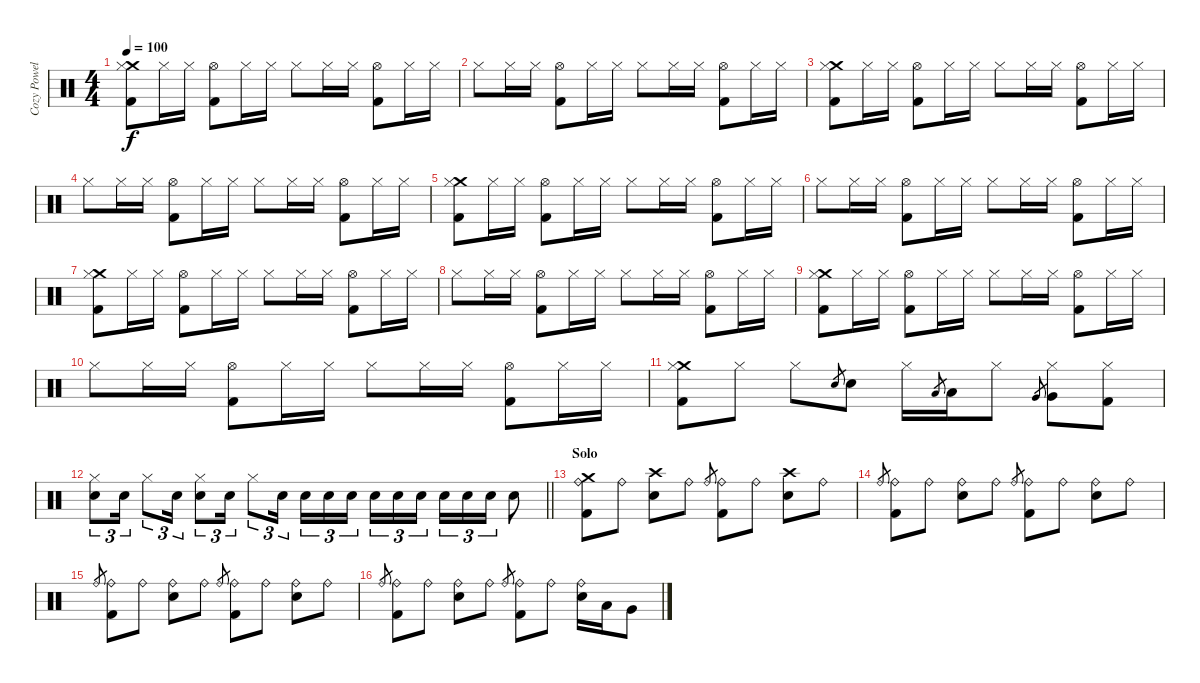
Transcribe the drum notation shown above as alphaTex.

\track ("Cozy Powell " "Cozy Powel") {instrument percussion}
\staff {score}
\articulation defaults
\ts (4 4)
\tempo 100
\clef neutral
\ks c
("Crash medium (hit)" "Hi-Hat (closed)" "Kick (hit) 2").8{dy f} "Hi-Hat (closed)".16 "Hi-Hat (closed)".16 ("Hi-Hat (open)" "Kick (hit) 2").8 "Hi-Hat (closed)".16 "Hi-Hat (closed)".16 "Hi-Hat (closed)".8 "Hi-Hat (closed)".16 "Hi-Hat (closed)".16 ("Hi-Hat (open)" "Kick (hit) 2").8 "Hi-Hat (closed)".16 "Hi-Hat (closed)".16 |
"Hi-Hat (closed)".8 "Hi-Hat (closed)".16 "Hi-Hat (closed)".16 ("Hi-Hat (open)" "Kick (hit) 2").8 "Hi-Hat (closed)".16 "Hi-Hat (closed)".16 "Hi-Hat (closed)".8 "Hi-Hat (closed)".16 "Hi-Hat (closed)".16 ("Hi-Hat (open)" "Kick (hit) 2").8 "Hi-Hat (closed)".16 "Hi-Hat (closed)".16 |
("Crash medium (hit)" "Hi-Hat (closed)" "Kick (hit) 2").8 "Hi-Hat (closed)".16 "Hi-Hat (closed)".16 ("Hi-Hat (open)" "Kick (hit) 2").8 "Hi-Hat (closed)".16 "Hi-Hat (closed)".16 "Hi-Hat (closed)".8 "Hi-Hat (closed)".16 "Hi-Hat (closed)".16 ("Hi-Hat (open)" "Kick (hit) 2").8 "Hi-Hat (closed)".16 "Hi-Hat (closed)".16 |
"Hi-Hat (closed)".8 "Hi-Hat (closed)".16 "Hi-Hat (closed)".16 ("Hi-Hat (open)" "Kick (hit) 2").8 "Hi-Hat (closed)".16 "Hi-Hat (closed)".16 "Hi-Hat (closed)".8 "Hi-Hat (closed)".16 "Hi-Hat (closed)".16 ("Hi-Hat (open)" "Kick (hit) 2").8 "Hi-Hat (closed)".16 "Hi-Hat (closed)".16 |
("Crash medium (hit)" "Hi-Hat (closed)" "Kick (hit) 2").8 "Hi-Hat (closed)".16 "Hi-Hat (closed)".16 ("Hi-Hat (open)" "Kick (hit) 2").8 "Hi-Hat (closed)".16 "Hi-Hat (closed)".16 "Hi-Hat (closed)".8 "Hi-Hat (closed)".16 "Hi-Hat (closed)".16 ("Hi-Hat (open)" "Kick (hit) 2").8 "Hi-Hat (closed)".16 "Hi-Hat (closed)".16 |
"Hi-Hat (closed)".8 "Hi-Hat (closed)".16 "Hi-Hat (closed)".16 ("Hi-Hat (open)" "Kick (hit) 2").8 "Hi-Hat (closed)".16 "Hi-Hat (closed)".16 "Hi-Hat (closed)".8 "Hi-Hat (closed)".16 "Hi-Hat (closed)".16 ("Hi-Hat (open)" "Kick (hit) 2").8 "Hi-Hat (closed)".16 "Hi-Hat (closed)".16 |
("Crash medium (hit)" "Hi-Hat (closed)" "Kick (hit) 2").8 "Hi-Hat (closed)".16 "Hi-Hat (closed)".16 ("Hi-Hat (open)" "Kick (hit) 2").8 "Hi-Hat (closed)".16 "Hi-Hat (closed)".16 "Hi-Hat (closed)".8 "Hi-Hat (closed)".16 "Hi-Hat (closed)".16 ("Hi-Hat (open)" "Kick (hit) 2").8 "Hi-Hat (closed)".16 "Hi-Hat (closed)".16 |
"Hi-Hat (closed)".8 "Hi-Hat (closed)".16 "Hi-Hat (closed)".16 ("Hi-Hat (open)" "Kick (hit) 2").8 "Hi-Hat (closed)".16 "Hi-Hat (closed)".16 "Hi-Hat (closed)".8 "Hi-Hat (closed)".16 "Hi-Hat (closed)".16 ("Hi-Hat (open)" "Kick (hit) 2").8 "Hi-Hat (closed)".16 "Hi-Hat (closed)".16 |
("Crash medium (hit)" "Hi-Hat (closed)" "Kick (hit) 2").8 "Hi-Hat (closed)".16 "Hi-Hat (closed)".16 ("Hi-Hat (open)" "Kick (hit) 2").8 "Hi-Hat (closed)".16 "Hi-Hat (closed)".16 "Hi-Hat (closed)".8 "Hi-Hat (closed)".16 "Hi-Hat (closed)".16 ("Hi-Hat (open)" "Kick (hit) 2").8 "Hi-Hat (closed)".16 "Hi-Hat (closed)".16 |
"Hi-Hat (closed)".8 "Hi-Hat (closed)".16 "Hi-Hat (closed)".16 ("Hi-Hat (open)" "Kick (hit) 2").8 "Hi-Hat (closed)".16 "Hi-Hat (closed)".16 "Hi-Hat (closed)".8 "Hi-Hat (closed)".16 "Hi-Hat (closed)".16 ("Hi-Hat (open)" "Kick (hit) 2").8 "Hi-Hat (closed)".16 "Hi-Hat (closed)".16 |
("Crash medium (hit)" "Hi-Hat (closed)" "Kick (hit) 2").8 "Hi-Hat (closed)".8 "Hi-Hat (closed)".8 "Snare (hit) 2".8{gr} "Snare (hit) 2".8 "Hi-Hat (closed)".16 "Low Tom (hit)".8{gr} "Low Tom (hit)".16 "Hi-Hat (closed)".8 "Very Low Tom (hit)".8{gr} ("Hi-Hat (closed)" "Very Low Tom (hit)").8 ("Hi-Hat (closed)" "Kick (hit) 2").8 |
\barLineRight lightlight
("Hi-Hat (closed)" "Snare (hit) 2").8{tu (3 2)} "Snare (hit) 2".16{tu (3 2)} "Hi-Hat (closed)".8{tu (3 2)} "Snare (hit) 2".16{tu (3 2)} ("Hi-Hat (closed)" "Snare (hit) 2").8{tu (3 2)} "Snare (hit) 2".16{tu (3 2)} "Hi-Hat (closed)".8{tu (3 2)} "Snare (hit) 2".16{tu (3 2)} "Snare (hit) 2".16{tu (3 2)} "Snare (hit) 2".16{tu (3 2)} "Snare (hit) 2".16{tu (3 2) beam splitsecondary} "Snare (hit) 2".16{tu (3 2)} "Snare (hit) 2".16{tu (3 2)} "Snare (hit) 2".16{tu (3 2)} "Snare (hit) 2".16{tu (3 2)} "Snare (hit) 2".16{tu (3 2)} "Snare (hit) 2".16{tu (3 2)} "Snare (hit) 2".8 |
\section ("" "Solo")
("Crash medium (hit)" "Ride (bell)" "Kick (hit) 2").8 "Ride (bell)".8 ("Crash high (hit)" "Snare (hit) 2").8 "Ride (bell)".8 "Ride (bell)".8{gr} ("Ride (bell)" "Kick (hit) 2").8 "Ride (bell)".8 ("Crash high (hit)" "Snare (hit) 2").8 "Ride (bell)".8 |
"Ride (bell)".8{gr} ("Ride (bell)" "Kick (hit) 2").8 "Ride (bell)".8 ("Ride (bell)" "Snare (hit) 2").8 "Ride (bell)".8 "Ride (bell)".8{gr} ("Ride (bell)" "Kick (hit) 2").8 "Ride (bell)".8 ("Ride (bell)" "Snare (hit) 2").8 "Ride (bell)".8 |
"Ride (bell)".8{gr} ("Ride (bell)" "Kick (hit) 2").8 "Ride (bell)".8 ("Ride (bell)" "Snare (hit) 2").8 "Ride (bell)".8 "Ride (bell)".8{gr} ("Ride (bell)" "Kick (hit) 2").8 "Ride (bell)".8 ("Ride (bell)" "Snare (hit) 2").8 "Ride (bell)".8 |
"Ride (bell)".8{gr} ("Ride (bell)" "Kick (hit) 2").8 "Ride (bell)".8 ("Ride (bell)" "Snare (hit) 2").8 "Ride (bell)".8 "Ride (bell)".8{gr} ("Ride (bell)" "Kick (hit) 2").8 "Ride (bell)".8 ("Ride (bell)" "Snare (hit) 2").16 "Low Tom (hit)".16 "Very Low Tom (hit)".8
